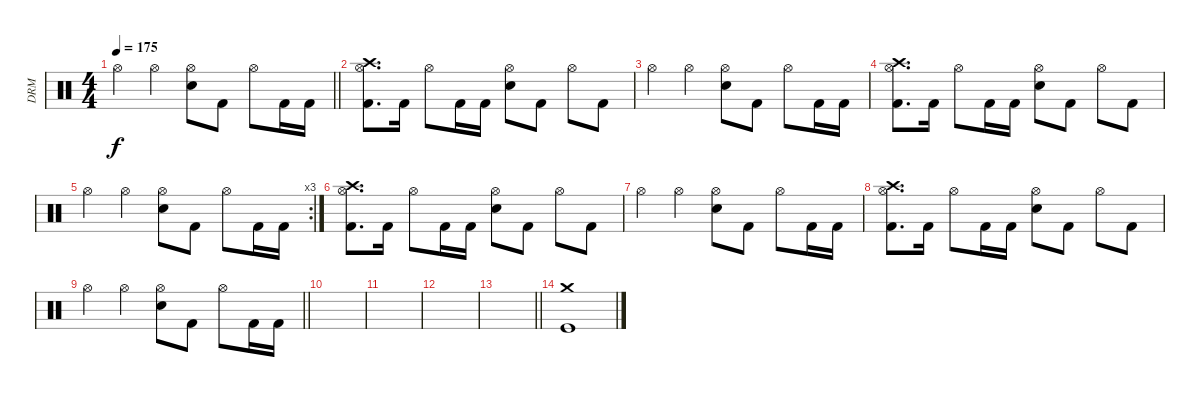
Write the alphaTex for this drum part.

\track ("DRM " "DRM ") {instrument percussion}
\staff {score}
\articulation defaults
\ts (4 4)
\tempo 175
\clef neutral
\barLineRight lightlight
\ks c "Hi-Hat (open)".4{dy f} "Hi-Hat (open)".4
("Hi-Hat (open)" "Electric Snare (hit)").8 "Kick (hit) 2".8 "Hi-Hat (open)".8 "Kick (hit) 2".16 "Kick (hit) 2".16 |
("Hi-Hat (open)" "Crash high (hit)" "Kick (hit) 2").8{d volume 15} "Kick (hit) 2".16 "Hi-Hat (open)".8 "Kick (hit) 2".16 "Kick (hit) 2".16 ("Hi-Hat (open)" "Electric Snare (hit)").8 "Kick (hit) 2".8 "Hi-Hat (open)".8 "Kick (hit) 2".8 |
"Hi-Hat (open)".4 "Hi-Hat (open)".4 ("Hi-Hat (open)" "Electric Snare (hit)").8 "Kick (hit) 2".8 "Hi-Hat (open)".8 "Kick (hit) 2".16 "Kick (hit) 2".16 |
("Hi-Hat (open)" "Crash high (hit)" "Kick (hit) 2").8{d volume 15} "Kick (hit) 2".16 "Hi-Hat (open)".8 "Kick (hit) 2".16 "Kick (hit) 2".16 ("Hi-Hat (open)" "Electric Snare (hit)").8 "Kick (hit) 2".8 "Hi-Hat (open)".8 "Kick (hit) 2".8 |
\rc 3 "Hi-Hat (open)".4 "Hi-Hat (open)".4
("Hi-Hat (open)" "Electric Snare (hit)").8 "Kick (hit) 2".8 "Hi-Hat (open)".8 "Kick (hit) 2".16 "Kick (hit) 2".16 |
("Hi-Hat (open)" "Crash high (hit)" "Kick (hit) 2").8{d volume 15} "Kick (hit) 2".16 "Hi-Hat (open)".8 "Kick (hit) 2".16 "Kick (hit) 2".16 ("Hi-Hat (open)" "Electric Snare (hit)").8 "Kick (hit) 2".8 "Hi-Hat (open)".8 "Kick (hit) 2".8 |
"Hi-Hat (open)".4 "Hi-Hat (open)".4 ("Hi-Hat (open)" "Electric Snare (hit)").8 "Kick (hit) 2".8 "Hi-Hat (open)".8 "Kick (hit) 2".16 "Kick (hit) 2".16 |
("Hi-Hat (open)" "Crash high (hit)" "Kick (hit) 2").8{d volume 15} "Kick (hit) 2".16 "Hi-Hat (open)".8 "Kick (hit) 2".16 "Kick (hit) 2".16 ("Hi-Hat (open)" "Electric Snare (hit)").8 "Kick (hit) 2".8 "Hi-Hat (open)".8 "Kick (hit) 2".8 |
\barLineRight lightlight "Hi-Hat (open)".4 "Hi-Hat (open)".4
("Hi-Hat (open)" "Electric Snare (hit)").8 "Kick (hit) 2".8 "Hi-Hat (open)".8 "Kick (hit) 2".16 "Kick (hit) 2".16 |
|
|
|
\barLineRight lightlight
|
("Crash medium (hit)" "Kick (hit)").1
